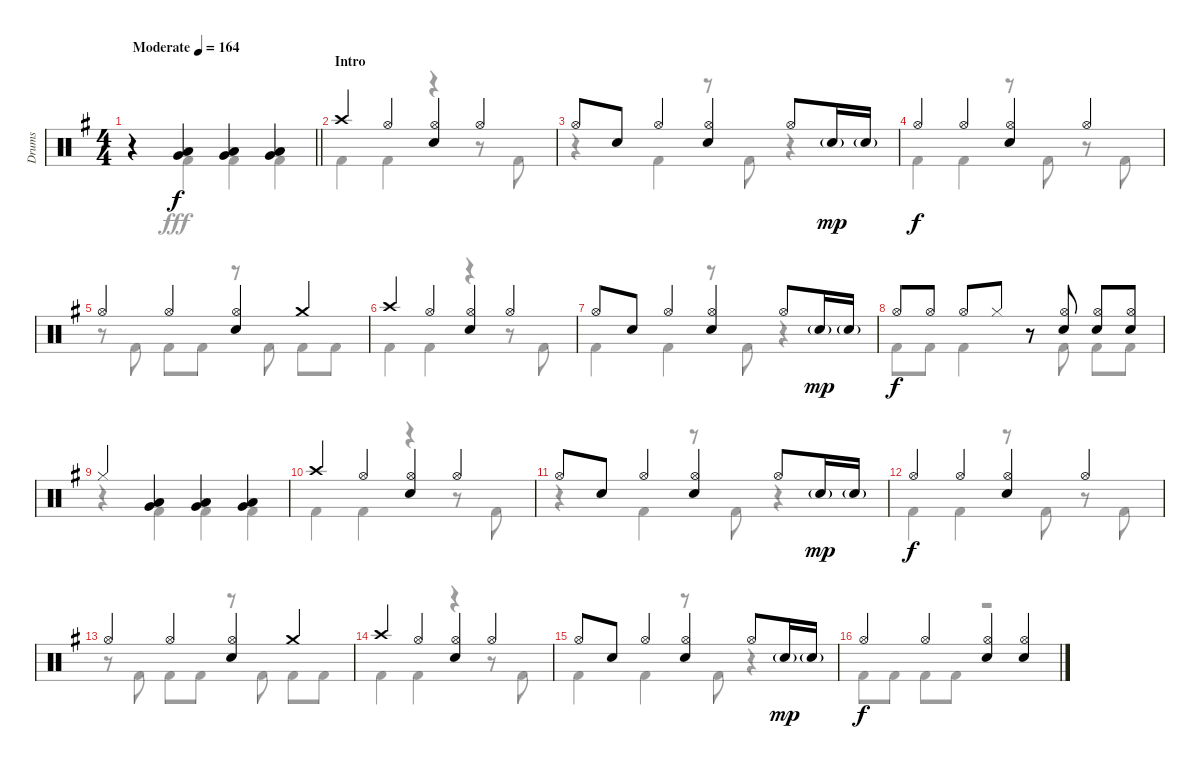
\track ("Drums" "Drums") {instrument percussion}
\staff {score}
\articulation defaults
\voice
\ts (4 4)
\tempo (164 "Moderate")
\clef neutral
\barLineRight lightlight
\ks g
r.4{dy f} ("Low Tom (hit)" "Very Low Tom (hit)").4 ("Low Tom (hit)" "Very Low Tom (hit)").4 ("Low Tom (hit)" "Very Low Tom (hit)").4 |
\section ("" "Intro")
"Crash high (hit)".4 "Hi-Hat (open)".4 ("Hi-Hat (open)" "Snare (hit) 2").4 "Hi-Hat (open)".4 |
"Hi-Hat (open)".8 "Snare (hit) 2".8 "Hi-Hat (open)".4 ("Hi-Hat (open)" "Snare (hit) 2").4 "Hi-Hat (open)".8 "Snare (hit) 2"{g}.16{dy mp} "Snare (hit) 2"{g}.16 |
"Hi-Hat (open)".4{dy f} "Hi-Hat (open)".4 ("Hi-Hat (open)" "Snare (hit) 2").4 "Hi-Hat (open)".4 |
"Hi-Hat (open)".4 "Hi-Hat (open)".4 ("Hi-Hat (open)" "Snare (hit) 2").4 "Crash medium (hit)".4 |
"Crash high (hit)".4 "Hi-Hat (open)".4 ("Hi-Hat (open)" "Snare (hit) 2").4 "Hi-Hat (open)".4 |
"Hi-Hat (open)".8 "Snare (hit) 2".8 "Hi-Hat (open)".4 ("Hi-Hat (open)" "Snare (hit) 2").4 "Hi-Hat (open)".8 "Snare (hit) 2"{g}.16{dy mp} "Snare (hit) 2"{g}.16 |
"Hi-Hat (open)".8{dy f} "Hi-Hat (open)".8 "Hi-Hat (open)".8 "Hi-Hat (closed)".8 r.8 ("Hi-Hat (open)" "Snare (hit) 2").8 ("Hi-Hat (open)" "Snare (hit) 2").8 ("Hi-Hat (open)" "Snare (hit) 2").8 |
"Hi-Hat (closed)".4 ("Low Tom (hit)" "Very Low Tom (hit)").4 ("Low Tom (hit)" "Very Low Tom (hit)").4 ("Low Tom (hit)" "Very Low Tom (hit)").4 |
"Crash high (hit)".4 "Hi-Hat (open)".4 ("Hi-Hat (open)" "Snare (hit) 2").4 "Hi-Hat (open)".4 |
"Hi-Hat (open)".8 "Snare (hit) 2".8 "Hi-Hat (open)".4 ("Hi-Hat (open)" "Snare (hit) 2").4 "Hi-Hat (open)".8 "Snare (hit) 2"{g}.16{dy mp} "Snare (hit) 2"{g}.16 |
"Hi-Hat (open)".4{dy f} "Hi-Hat (open)".4 ("Hi-Hat (open)" "Snare (hit) 2").4 "Hi-Hat (open)".4 |
"Hi-Hat (open)".4 "Hi-Hat (open)".4 ("Hi-Hat (open)" "Snare (hit) 2").4 "Crash medium (hit)".4 |
"Crash high (hit)".4 "Hi-Hat (open)".4 ("Hi-Hat (open)" "Snare (hit) 2").4 "Hi-Hat (open)".4 |
"Hi-Hat (open)".8 "Snare (hit) 2".8 "Hi-Hat (open)".4 ("Hi-Hat (open)" "Snare (hit) 2").4 "Hi-Hat (open)".8 "Snare (hit) 2"{g}.16{dy mp} "Snare (hit) 2"{g}.16 |
"Hi-Hat (open)".4{dy f} "Hi-Hat (open)".4 ("Hi-Hat (open)" "Snare (hit) 2").4 ("Hi-Hat (open)" "Snare (hit) 2").4
\voice
\clef neutral
\ottava regular
\simile none
\barLineRight lightlight
\ks g
r.4{dy fff} "Kick (hit) 2".4 "Kick (hit) 2".4 "Kick (hit) 2".4 |
"Kick (hit) 2".4 "Kick (hit) 2".4 r.4 r.8 "Kick (hit) 2".8 |
r.4 "Kick (hit) 2".4 r.8 "Kick (hit) 2".8 r.4 |
"Kick (hit) 2".4 "Kick (hit) 2".4 r.8 "Kick (hit) 2".8 r.8 "Kick (hit) 2".8 |
r.8 "Kick (hit) 2".8 "Kick (hit) 2".8 "Kick (hit) 2".8 r.8 "Kick (hit) 2".8 "Kick (hit) 2".8 "Kick (hit) 2".8 |
"Kick (hit) 2".4 "Kick (hit) 2".4 r.4 r.8 "Kick (hit) 2".8 |
"Kick (hit) 2".4 "Kick (hit) 2".4 r.8 "Kick (hit) 2".8 r.4 |
"Kick (hit) 2".8 "Kick (hit) 2".8 "Kick (hit) 2".4 r.8 "Kick (hit) 2".8 "Kick (hit) 2".8 "Kick (hit) 2".8 |
r.4 "Kick (hit) 2".4 "Kick (hit) 2".4 "Kick (hit) 2".4 |
"Kick (hit) 2".4 "Kick (hit) 2".4 r.4 r.8 "Kick (hit) 2".8 |
r.4 "Kick (hit) 2".4 r.8 "Kick (hit) 2".8 r.4 |
"Kick (hit) 2".4 "Kick (hit) 2".4 r.8 "Kick (hit) 2".8 r.8 "Kick (hit) 2".8 |
r.8 "Kick (hit) 2".8 "Kick (hit) 2".8 "Kick (hit) 2".8 r.8 "Kick (hit) 2".8 "Kick (hit) 2".8 "Kick (hit) 2".8 |
"Kick (hit) 2".4 "Kick (hit) 2".4 r.4 r.8 "Kick (hit) 2".8 |
"Kick (hit) 2".4 "Kick (hit) 2".4 r.8 "Kick (hit) 2".8 r.4 |
"Kick (hit) 2".8 "Kick (hit) 2".8 "Kick (hit) 2".8 "Kick (hit) 2".8 r.2
